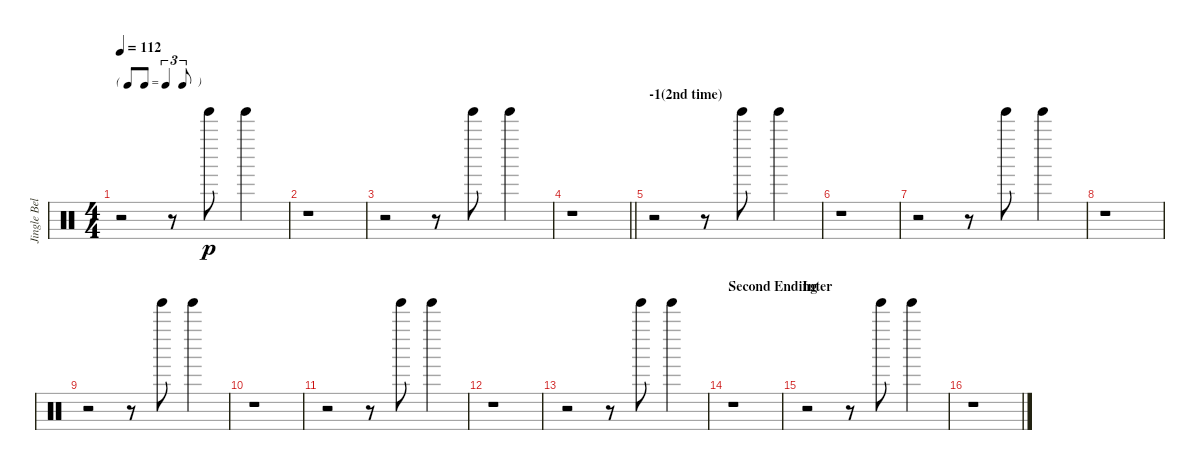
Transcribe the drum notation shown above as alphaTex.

\track ("Jingle Bell" "Jingle Bel") {instrument percussion}
\staff {score}
\articulation defaults
\ts (4 4)
\tf triplet8th
\tempo 112
\clef neutral
\ks c
r.2{dy p} r.8 "Tinkle Bell (hit)".8 "Tinkle Bell (hit)".4 |
r.1 |
r.2 r.8 "Tinkle Bell (hit)".8 "Tinkle Bell (hit)".4 |
\barLineRight lightlight
r.1 |
\section ("" "-1(2nd time)")
r.2 r.8 "Tinkle Bell (hit)".8 "Tinkle Bell (hit)".4 |
r.1 |
r.2 r.8 "Tinkle Bell (hit)".8 "Tinkle Bell (hit)".4 |
r.1 |
r.2 r.8 "Tinkle Bell (hit)".8 "Tinkle Bell (hit)".4 |
r.1 |
r.2 r.8 "Tinkle Bell (hit)".8 "Tinkle Bell (hit)".4 |
r.1 |
r.2 r.8 "Tinkle Bell (hit)".8 "Tinkle Bell (hit)".4 |
\section ("" "Second Ending")
r.1 |
\section ("" "Inter")
r.2 r.8 "Tinkle Bell (hit)".8 "Tinkle Bell (hit)".4 |
r.1
